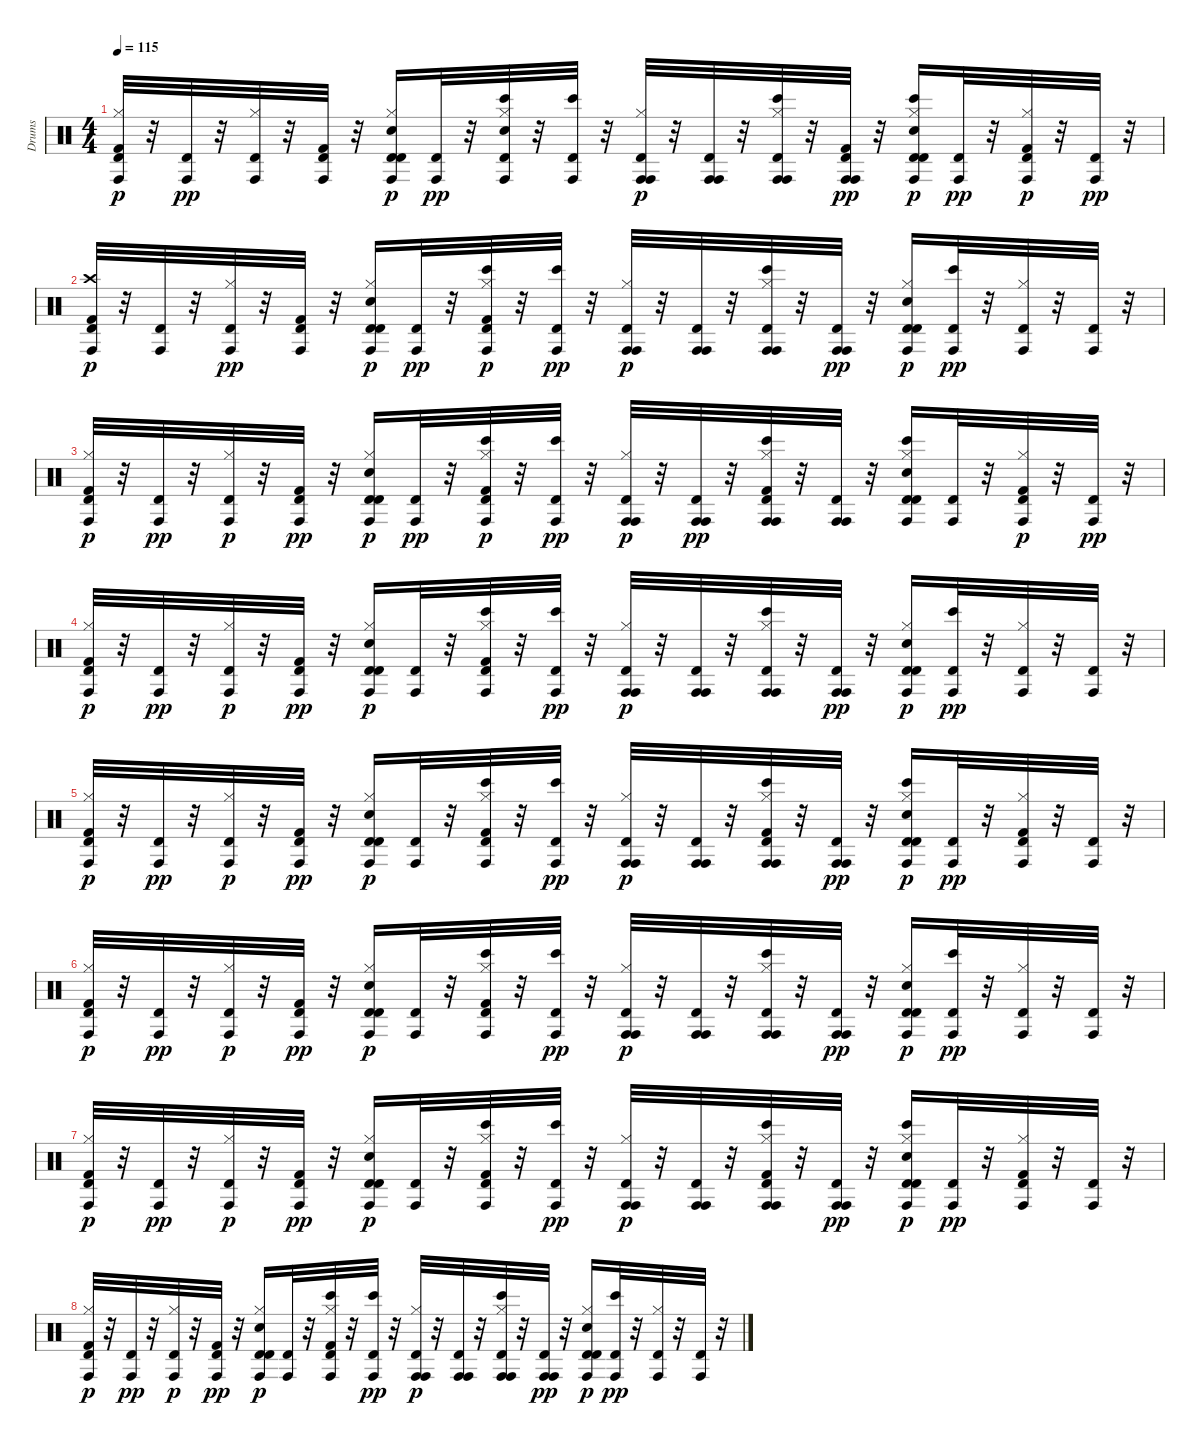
\track ("Drums" "Drums") {instrument percussion}
\staff {score}
\articulation defaults
\ts (4 4)
\tempo 115
\clef neutral
\ks c
("Conga high (hit)" "Hi-Hat (closed)" "Kick (hit) 2" "Timbale high (hit)").32{dy p} r.32 ("Conga high (hit)" "Timbale high (hit)").32{dy pp} r.32 ("Conga high (hit)" "Hi-Hat (closed)" "Timbale high (hit)").32 r.32 ("Conga high (hit)" "Kick (hit) 2" "Timbale high (hit)").32 r.32 ("Conga high (hit)" "Timbale high (hit)" "Hi-Hat (closed)" "Electric Snare (hit)" "Timbale high (hit)").16{dy p} ("Conga high (hit)" "Timbale high (hit)").32{dy pp} r.32 ("Conga high (hit)" "Bongo High (hit)" "Electric Snare (hit)" "Hi-Hat (closed)" "Timbale high (hit)").32 r.32 ("Conga high (hit)" "Bongo High (hit)" "Timbale high (hit)").32 r.32 ("Conga high (hit)" "Conga high (hit)" "Hi-Hat (closed)" "Timbale high (hit)").32{dy p} r.32 ("Conga high (hit)" "Conga high (hit)" "Timbale high (hit)").32 r.32 ("Conga high (hit)" "Conga high (hit)" "Bongo High (hit)" "Hi-Hat (closed)" "Timbale high (hit)").32 r.32 ("Conga high (hit)" "Conga high (hit)" "Kick (hit) 2" "Timbale high (hit)").32{dy pp} r.32 ("Conga high (hit)" "Bongo High (hit)" "Timbale high (hit)" "Hi-Hat (closed)" "Electric Snare (hit)" "Timbale high (hit)").16{dy p} ("Conga high (hit)" "Timbale high (hit)").32{dy pp} r.32 ("Conga high (hit)" "Kick (hit) 2" "Hi-Hat (closed)" "Timbale high (hit)").32{dy p} r.32 ("Conga high (hit)" "Timbale high (hit)").32{dy pp} r.32 |
("Conga high (hit)" "Crash high (hit)" "Kick (hit) 2" "Timbale high (hit)").32{dy p} r.32 ("Conga high (hit)" "Timbale high (hit)").32 r.32 ("Conga high (hit)" "Hi-Hat (closed)" "Timbale high (hit)").32{dy pp} r.32 ("Conga high (hit)" "Kick (hit) 2" "Timbale high (hit)").32 r.32 ("Conga high (hit)" "Timbale high (hit)" "Hi-Hat (closed)" "Electric Snare (hit)" "Timbale high (hit)").16{dy p} ("Conga high (hit)" "Timbale high (hit)").32{dy pp} r.32 ("Conga high (hit)" "Bongo High (hit)" "Hi-Hat (closed)" "Kick (hit) 2" "Timbale high (hit)").32{dy p} r.32 ("Conga high (hit)" "Bongo High (hit)" "Timbale high (hit)").32{dy pp} r.32 ("Conga high (hit)" "Conga high (hit)" "Hi-Hat (closed)" "Timbale high (hit)").32{dy p} r.32 ("Conga high (hit)" "Conga high (hit)" "Timbale high (hit)").32 r.32 ("Conga high (hit)" "Conga high (hit)" "Bongo High (hit)" "Hi-Hat (closed)" "Timbale high (hit)").32 r.32 ("Conga high (hit)" "Conga high (hit)" "Timbale high (hit)").32{dy pp} r.32 ("Conga high (hit)" "Timbale high (hit)" "Hi-Hat (closed)" "Electric Snare (hit)" "Timbale high (hit)").16{dy p} ("Conga high (hit)" "Bongo High (hit)" "Timbale high (hit)").32{dy pp} r.32 ("Conga high (hit)" "Hi-Hat (closed)" "Timbale high (hit)").32 r.32 ("Conga high (hit)" "Timbale high (hit)").32 r.32 |
("Conga high (hit)" "Hi-Hat (closed)" "Kick (hit) 2" "Timbale high (hit)").32{dy p} r.32 ("Conga high (hit)" "Timbale high (hit)").32{dy pp} r.32 ("Conga high (hit)" "Hi-Hat (closed)" "Timbale high (hit)").32{dy p} r.32 ("Conga high (hit)" "Kick (hit) 2" "Timbale high (hit)").32{dy pp} r.32 ("Conga high (hit)" "Timbale high (hit)" "Hi-Hat (closed)" "Electric Snare (hit)" "Timbale high (hit)").16{dy p} ("Conga high (hit)" "Timbale high (hit)").32{dy pp} r.32 ("Conga high (hit)" "Bongo High (hit)" "Hi-Hat (closed)" "Kick (hit) 2" "Timbale high (hit)").32{dy p} r.32 ("Conga high (hit)" "Bongo High (hit)" "Timbale high (hit)").32{dy pp} r.32 ("Conga high (hit)" "Conga high (hit)" "Hi-Hat (closed)" "Timbale high (hit)").32{dy p} r.32 ("Conga high (hit)" "Conga high (hit)" "Timbale high (hit)").32{dy pp} r.32 ("Conga high (hit)" "Conga high (hit)" "Bongo High (hit)" "Kick (hit) 2" "Hi-Hat (closed)" "Timbale high (hit)").32 r.32 ("Conga high (hit)" "Conga high (hit)" "Timbale high (hit)").32 r.32 ("Conga high (hit)" "Bongo High (hit)" "Timbale high (hit)" "Hi-Hat (closed)" "Electric Snare (hit)" "Timbale high (hit)").16 ("Conga high (hit)" "Timbale high (hit)").32 r.32 ("Conga high (hit)" "Kick (hit) 2" "Hi-Hat (closed)" "Timbale high (hit)").32{dy p} r.32 ("Conga high (hit)" "Timbale high (hit)").32{dy pp} r.32 |
("Conga high (hit)" "Hi-Hat (closed)" "Kick (hit) 2" "Timbale high (hit)").32{dy p} r.32 ("Conga high (hit)" "Timbale high (hit)").32{dy pp} r.32 ("Conga high (hit)" "Hi-Hat (closed)" "Timbale high (hit)").32{dy p} r.32 ("Conga high (hit)" "Kick (hit) 2" "Timbale high (hit)").32{dy pp} r.32 ("Conga high (hit)" "Timbale high (hit)" "Hi-Hat (closed)" "Electric Snare (hit)" "Timbale high (hit)").16{dy p} ("Conga high (hit)" "Timbale high (hit)").32 r.32 ("Conga high (hit)" "Bongo High (hit)" "Hi-Hat (closed)" "Kick (hit) 2" "Timbale high (hit)").32 r.32 ("Conga high (hit)" "Bongo High (hit)" "Timbale high (hit)").32{dy pp} r.32 ("Conga high (hit)" "Conga high (hit)" "Hi-Hat (closed)" "Timbale high (hit)").32{dy p} r.32 ("Conga high (hit)" "Conga high (hit)" "Timbale high (hit)").32 r.32 ("Conga high (hit)" "Conga high (hit)" "Bongo High (hit)" "Hi-Hat (closed)" "Timbale high (hit)").32 r.32 ("Conga high (hit)" "Conga high (hit)" "Timbale high (hit)").32{dy pp} r.32 ("Conga high (hit)" "Timbale high (hit)" "Hi-Hat (closed)" "Electric Snare (hit)" "Timbale high (hit)").16{dy p} ("Conga high (hit)" "Bongo High (hit)" "Timbale high (hit)").32{dy pp} r.32 ("Conga high (hit)" "Hi-Hat (closed)" "Timbale high (hit)").32 r.32 ("Conga high (hit)" "Timbale high (hit)").32 r.32 |
("Conga high (hit)" "Hi-Hat (closed)" "Kick (hit) 2" "Timbale high (hit)").32{dy p} r.32 ("Conga high (hit)" "Timbale high (hit)").32{dy pp} r.32 ("Conga high (hit)" "Hi-Hat (closed)" "Timbale high (hit)").32{dy p} r.32 ("Conga high (hit)" "Kick (hit) 2" "Timbale high (hit)").32{dy pp} r.32 ("Conga high (hit)" "Timbale high (hit)" "Hi-Hat (closed)" "Electric Snare (hit)" "Timbale high (hit)").16{dy p} ("Conga high (hit)" "Timbale high (hit)").32 r.32 ("Conga high (hit)" "Bongo High (hit)" "Hi-Hat (closed)" "Kick (hit) 2" "Timbale high (hit)").32 r.32 ("Conga high (hit)" "Bongo High (hit)" "Timbale high (hit)").32{dy pp} r.32 ("Conga high (hit)" "Conga high (hit)" "Hi-Hat (closed)" "Timbale high (hit)").32{dy p} r.32 ("Conga high (hit)" "Conga high (hit)" "Timbale high (hit)").32 r.32 ("Conga high (hit)" "Conga high (hit)" "Bongo High (hit)" "Kick (hit) 2" "Hi-Hat (closed)" "Timbale high (hit)").32 r.32 ("Conga high (hit)" "Conga high (hit)" "Timbale high (hit)").32{dy pp} r.32 ("Conga high (hit)" "Bongo High (hit)" "Timbale high (hit)" "Hi-Hat (closed)" "Electric Snare (hit)" "Timbale high (hit)").16{dy p} ("Conga high (hit)" "Timbale high (hit)").32{dy pp} r.32 ("Conga high (hit)" "Kick (hit) 2" "Hi-Hat (closed)" "Timbale high (hit)").32 r.32 ("Conga high (hit)" "Timbale high (hit)").32 r.32 |
("Conga high (hit)" "Hi-Hat (closed)" "Kick (hit) 2" "Timbale high (hit)").32{dy p} r.32 ("Conga high (hit)" "Timbale high (hit)").32{dy pp} r.32 ("Conga high (hit)" "Hi-Hat (closed)" "Timbale high (hit)").32{dy p} r.32 ("Conga high (hit)" "Kick (hit) 2" "Timbale high (hit)").32{dy pp} r.32 ("Conga high (hit)" "Timbale high (hit)" "Hi-Hat (closed)" "Electric Snare (hit)" "Timbale high (hit)").16{dy p} ("Conga high (hit)" "Timbale high (hit)").32 r.32 ("Conga high (hit)" "Bongo High (hit)" "Hi-Hat (closed)" "Kick (hit) 2" "Timbale high (hit)").32 r.32 ("Conga high (hit)" "Bongo High (hit)" "Timbale high (hit)").32{dy pp} r.32 ("Conga high (hit)" "Conga high (hit)" "Hi-Hat (closed)" "Timbale high (hit)").32{dy p} r.32 ("Conga high (hit)" "Conga high (hit)" "Timbale high (hit)").32 r.32 ("Conga high (hit)" "Conga high (hit)" "Bongo High (hit)" "Hi-Hat (closed)" "Timbale high (hit)").32 r.32 ("Conga high (hit)" "Conga high (hit)" "Timbale high (hit)").32{dy pp} r.32 ("Conga high (hit)" "Timbale high (hit)" "Hi-Hat (closed)" "Electric Snare (hit)" "Timbale high (hit)").16{dy p} ("Conga high (hit)" "Bongo High (hit)" "Timbale high (hit)").32{dy pp} r.32 ("Conga high (hit)" "Hi-Hat (closed)" "Timbale high (hit)").32 r.32 ("Conga high (hit)" "Timbale high (hit)").32 r.32 |
("Conga high (hit)" "Hi-Hat (closed)" "Kick (hit) 2" "Timbale high (hit)").32{dy p} r.32 ("Conga high (hit)" "Timbale high (hit)").32{dy pp} r.32 ("Conga high (hit)" "Hi-Hat (closed)" "Timbale high (hit)").32{dy p} r.32 ("Conga high (hit)" "Kick (hit) 2" "Timbale high (hit)").32{dy pp} r.32 ("Conga high (hit)" "Timbale high (hit)" "Hi-Hat (closed)" "Electric Snare (hit)" "Timbale high (hit)").16{dy p} ("Conga high (hit)" "Timbale high (hit)").32 r.32 ("Conga high (hit)" "Bongo High (hit)" "Hi-Hat (closed)" "Kick (hit) 2" "Timbale high (hit)").32 r.32 ("Conga high (hit)" "Bongo High (hit)" "Timbale high (hit)").32{dy pp} r.32 ("Conga high (hit)" "Conga high (hit)" "Hi-Hat (closed)" "Timbale high (hit)").32{dy p} r.32 ("Conga high (hit)" "Conga high (hit)" "Timbale high (hit)").32 r.32 ("Conga high (hit)" "Conga high (hit)" "Bongo High (hit)" "Kick (hit) 2" "Hi-Hat (closed)" "Timbale high (hit)").32 r.32 ("Conga high (hit)" "Conga high (hit)" "Timbale high (hit)").32{dy pp} r.32 ("Conga high (hit)" "Bongo High (hit)" "Timbale high (hit)" "Hi-Hat (closed)" "Electric Snare (hit)" "Timbale high (hit)").16{dy p} ("Conga high (hit)" "Timbale high (hit)").32{dy pp} r.32 ("Conga high (hit)" "Kick (hit) 2" "Hi-Hat (closed)" "Timbale high (hit)").32 r.32 ("Conga high (hit)" "Timbale high (hit)").32 r.32 |
("Conga high (hit)" "Hi-Hat (closed)" "Kick (hit) 2" "Timbale high (hit)").32{dy p} r.32 ("Conga high (hit)" "Timbale high (hit)").32{dy pp} r.32 ("Conga high (hit)" "Hi-Hat (closed)" "Timbale high (hit)").32{dy p} r.32 ("Conga high (hit)" "Kick (hit) 2" "Timbale high (hit)").32{dy pp} r.32 ("Conga high (hit)" "Timbale high (hit)" "Hi-Hat (closed)" "Electric Snare (hit)" "Timbale high (hit)").16{dy p} ("Conga high (hit)" "Timbale high (hit)").32 r.32 ("Conga high (hit)" "Bongo High (hit)" "Hi-Hat (closed)" "Kick (hit) 2" "Timbale high (hit)").32 r.32 ("Conga high (hit)" "Bongo High (hit)" "Timbale high (hit)").32{dy pp} r.32 ("Conga high (hit)" "Conga high (hit)" "Hi-Hat (closed)" "Timbale high (hit)").32{dy p} r.32 ("Conga high (hit)" "Conga high (hit)" "Timbale high (hit)").32 r.32 ("Conga high (hit)" "Conga high (hit)" "Bongo High (hit)" "Hi-Hat (closed)" "Timbale high (hit)").32 r.32 ("Conga high (hit)" "Conga high (hit)" "Timbale high (hit)").32{dy pp} r.32 ("Conga high (hit)" "Timbale high (hit)" "Hi-Hat (closed)" "Electric Snare (hit)" "Timbale high (hit)").16{dy p} ("Conga high (hit)" "Bongo High (hit)" "Timbale high (hit)").32{dy pp} r.32 ("Conga high (hit)" "Hi-Hat (closed)" "Timbale high (hit)").32 r.32 ("Conga high (hit)" "Timbale high (hit)").32 r.32
